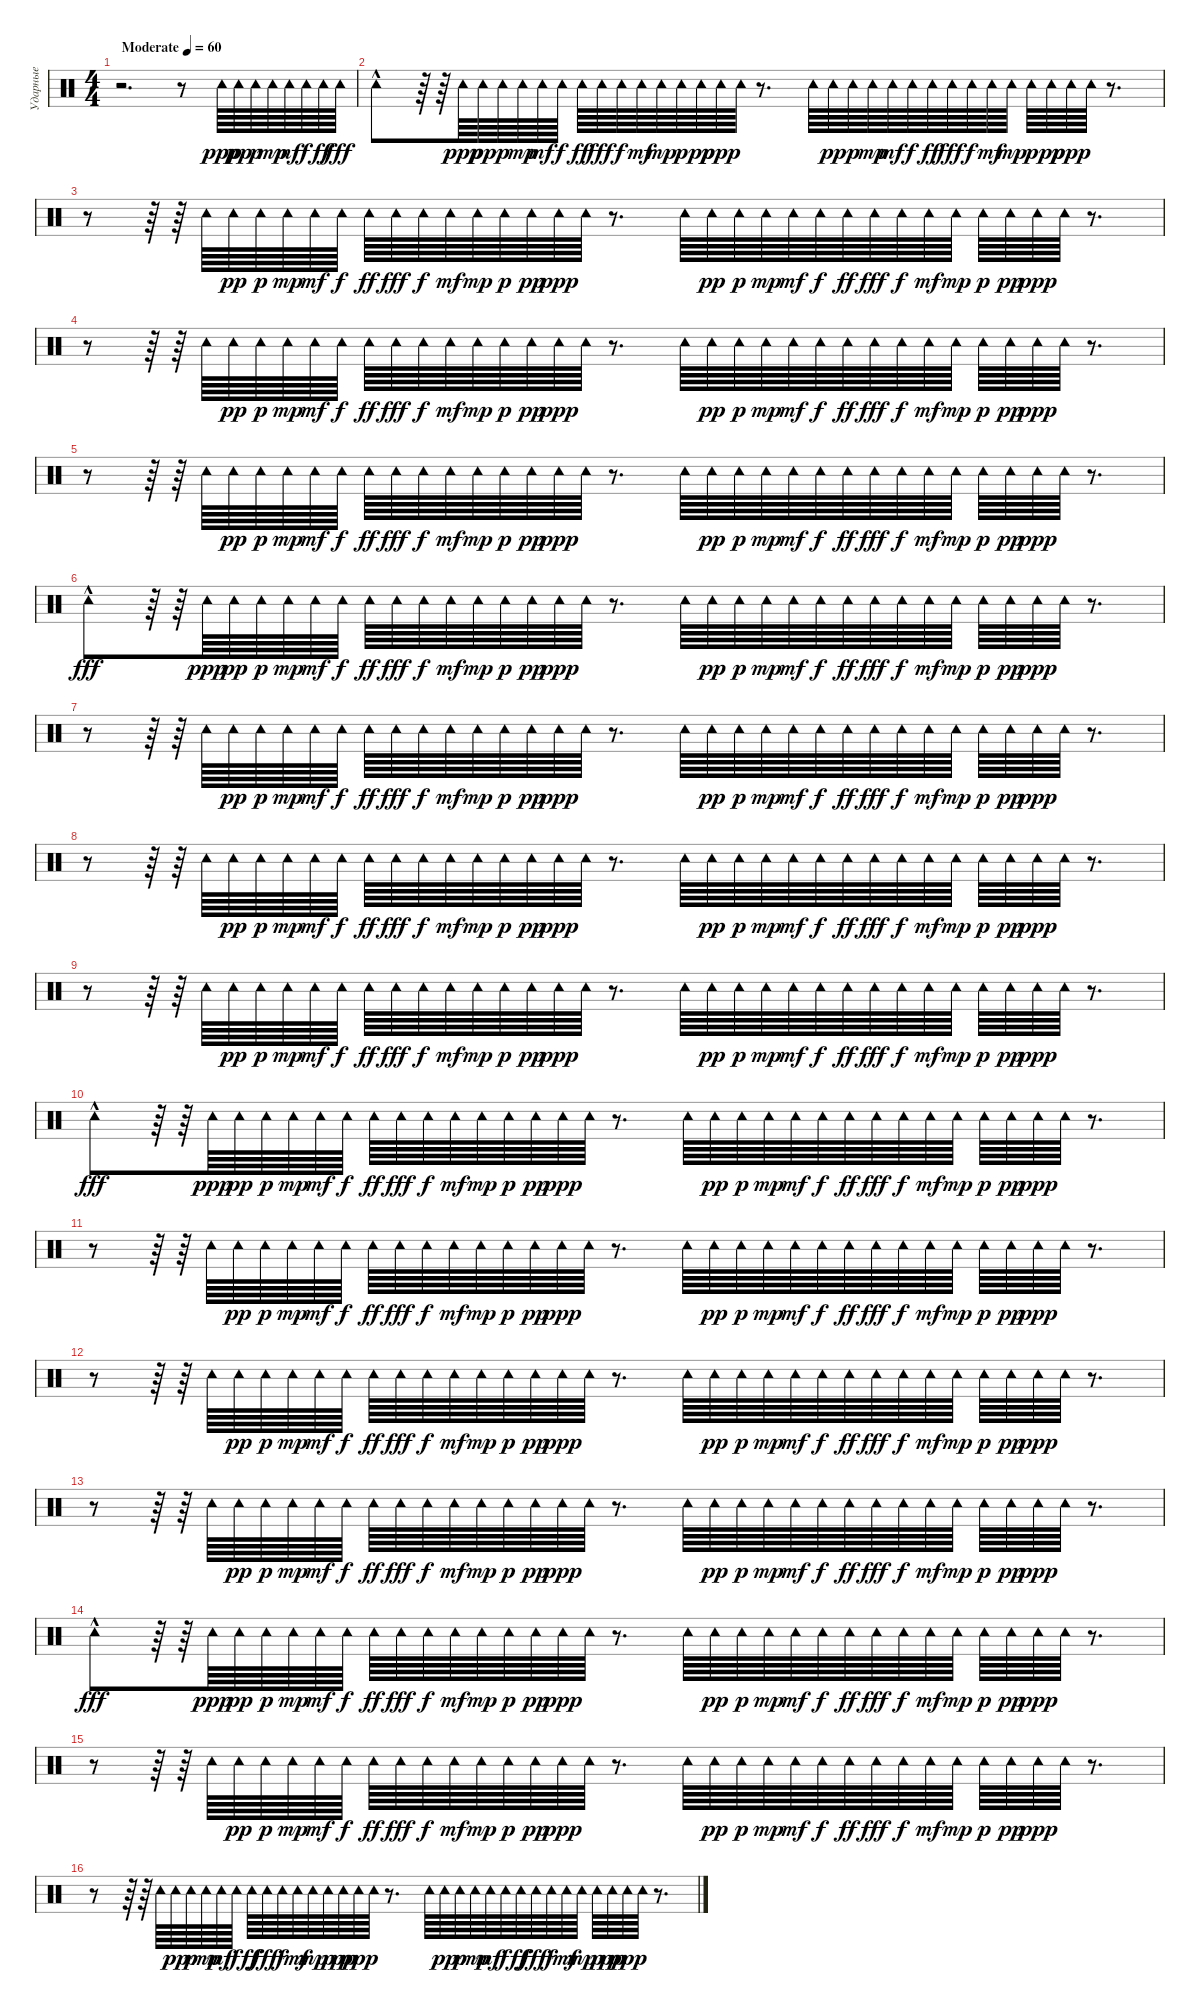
\track ("Ударные" "Ударные") {instrument percussion}
\staff {score}
\articulation defaults
\ts (4 4)
\tempo (60 "Moderate")
\clef neutral
\ks c
r.2{d dy ppp} r.8 "Tambourine (hit)".64 "Tambourine (hit)".64{dy pp} "Tambourine (hit)".64{dy p} "Tambourine (hit)".64{dy mp} "Tambourine (hit)".64{dy mf} "Tambourine (hit)".64{dy f} "Tambourine (hit)".64{dy ff} "Tambourine (hit)".64{dy fff} |
"Tambourine (hit)"{hac}.8 r.64 r.64 "Tambourine (hit)".64{dy ppp} "Tambourine (hit)".64{dy pp} "Tambourine (hit)".64{dy p} "Tambourine (hit)".64{dy mp} "Tambourine (hit)".64{dy mf} "Tambourine (hit)".64{dy f} "Tambourine (hit)".64{dy ff} "Tambourine (hit)".64{dy fff} "Tambourine (hit)".64{dy f} "Tambourine (hit)".64{dy mf} "Tambourine (hit)".64{dy mp} "Tambourine (hit)".64{dy p} "Tambourine (hit)".64{dy pp} "Tambourine (hit)".64{dy ppp} "Tambourine (hit)".64 r.8{d} "Tambourine (hit)".64 "Tambourine (hit)".64{dy pp} "Tambourine (hit)".64{dy p} "Tambourine (hit)".64{dy mp} "Tambourine (hit)".64{dy mf} "Tambourine (hit)".64{dy f} "Tambourine (hit)".64{dy ff} "Tambourine (hit)".64{dy fff} "Tambourine (hit)".64{dy f} "Tambourine (hit)".64{dy mf} "Tambourine (hit)".64{dy mp} "Tambourine (hit)".64{dy p} "Tambourine (hit)".64{dy pp} "Tambourine (hit)".64{dy ppp} "Tambourine (hit)".64 r.8{d} |
r.8 r.64 r.64 "Tambourine (hit)".64 "Tambourine (hit)".64{dy pp} "Tambourine (hit)".64{dy p} "Tambourine (hit)".64{dy mp} "Tambourine (hit)".64{dy mf} "Tambourine (hit)".64{dy f} "Tambourine (hit)".64{dy ff} "Tambourine (hit)".64{dy fff} "Tambourine (hit)".64{dy f} "Tambourine (hit)".64{dy mf} "Tambourine (hit)".64{dy mp} "Tambourine (hit)".64{dy p} "Tambourine (hit)".64{dy pp} "Tambourine (hit)".64{dy ppp} "Tambourine (hit)".64 r.8{d} "Tambourine (hit)".64 "Tambourine (hit)".64{dy pp} "Tambourine (hit)".64{dy p} "Tambourine (hit)".64{dy mp} "Tambourine (hit)".64{dy mf} "Tambourine (hit)".64{dy f} "Tambourine (hit)".64{dy ff} "Tambourine (hit)".64{dy fff} "Tambourine (hit)".64{dy f} "Tambourine (hit)".64{dy mf} "Tambourine (hit)".64{dy mp} "Tambourine (hit)".64{dy p} "Tambourine (hit)".64{dy pp} "Tambourine (hit)".64{dy ppp} "Tambourine (hit)".64 r.8{d} |
r.8 r.64 r.64 "Tambourine (hit)".64 "Tambourine (hit)".64{dy pp} "Tambourine (hit)".64{dy p} "Tambourine (hit)".64{dy mp} "Tambourine (hit)".64{dy mf} "Tambourine (hit)".64{dy f} "Tambourine (hit)".64{dy ff} "Tambourine (hit)".64{dy fff} "Tambourine (hit)".64{dy f} "Tambourine (hit)".64{dy mf} "Tambourine (hit)".64{dy mp} "Tambourine (hit)".64{dy p} "Tambourine (hit)".64{dy pp} "Tambourine (hit)".64{dy ppp} "Tambourine (hit)".64 r.8{d} "Tambourine (hit)".64 "Tambourine (hit)".64{dy pp} "Tambourine (hit)".64{dy p} "Tambourine (hit)".64{dy mp} "Tambourine (hit)".64{dy mf} "Tambourine (hit)".64{dy f} "Tambourine (hit)".64{dy ff} "Tambourine (hit)".64{dy fff} "Tambourine (hit)".64{dy f} "Tambourine (hit)".64{dy mf} "Tambourine (hit)".64{dy mp} "Tambourine (hit)".64{dy p} "Tambourine (hit)".64{dy pp} "Tambourine (hit)".64{dy ppp} "Tambourine (hit)".64 r.8{d} |
r.8 r.64 r.64 "Tambourine (hit)".64 "Tambourine (hit)".64{dy pp} "Tambourine (hit)".64{dy p} "Tambourine (hit)".64{dy mp} "Tambourine (hit)".64{dy mf} "Tambourine (hit)".64{dy f} "Tambourine (hit)".64{dy ff} "Tambourine (hit)".64{dy fff} "Tambourine (hit)".64{dy f} "Tambourine (hit)".64{dy mf} "Tambourine (hit)".64{dy mp} "Tambourine (hit)".64{dy p} "Tambourine (hit)".64{dy pp} "Tambourine (hit)".64{dy ppp} "Tambourine (hit)".64 r.8{d} "Tambourine (hit)".64 "Tambourine (hit)".64{dy pp} "Tambourine (hit)".64{dy p} "Tambourine (hit)".64{dy mp} "Tambourine (hit)".64{dy mf} "Tambourine (hit)".64{dy f} "Tambourine (hit)".64{dy ff} "Tambourine (hit)".64{dy fff} "Tambourine (hit)".64{dy f} "Tambourine (hit)".64{dy mf} "Tambourine (hit)".64{dy mp} "Tambourine (hit)".64{dy p} "Tambourine (hit)".64{dy pp} "Tambourine (hit)".64{dy ppp} "Tambourine (hit)".64 r.8{d} |
"Tambourine (hit)"{hac}.8{dy fff} r.64 r.64 "Tambourine (hit)".64{dy ppp} "Tambourine (hit)".64{dy pp} "Tambourine (hit)".64{dy p} "Tambourine (hit)".64{dy mp} "Tambourine (hit)".64{dy mf} "Tambourine (hit)".64{dy f} "Tambourine (hit)".64{dy ff} "Tambourine (hit)".64{dy fff} "Tambourine (hit)".64{dy f} "Tambourine (hit)".64{dy mf} "Tambourine (hit)".64{dy mp} "Tambourine (hit)".64{dy p} "Tambourine (hit)".64{dy pp} "Tambourine (hit)".64{dy ppp} "Tambourine (hit)".64 r.8{d} "Tambourine (hit)".64 "Tambourine (hit)".64{dy pp} "Tambourine (hit)".64{dy p} "Tambourine (hit)".64{dy mp} "Tambourine (hit)".64{dy mf} "Tambourine (hit)".64{dy f} "Tambourine (hit)".64{dy ff} "Tambourine (hit)".64{dy fff} "Tambourine (hit)".64{dy f} "Tambourine (hit)".64{dy mf} "Tambourine (hit)".64{dy mp} "Tambourine (hit)".64{dy p} "Tambourine (hit)".64{dy pp} "Tambourine (hit)".64{dy ppp} "Tambourine (hit)".64 r.8{d} |
r.8 r.64 r.64 "Tambourine (hit)".64 "Tambourine (hit)".64{dy pp} "Tambourine (hit)".64{dy p} "Tambourine (hit)".64{dy mp} "Tambourine (hit)".64{dy mf} "Tambourine (hit)".64{dy f} "Tambourine (hit)".64{dy ff} "Tambourine (hit)".64{dy fff} "Tambourine (hit)".64{dy f} "Tambourine (hit)".64{dy mf} "Tambourine (hit)".64{dy mp} "Tambourine (hit)".64{dy p} "Tambourine (hit)".64{dy pp} "Tambourine (hit)".64{dy ppp} "Tambourine (hit)".64 r.8{d} "Tambourine (hit)".64 "Tambourine (hit)".64{dy pp} "Tambourine (hit)".64{dy p} "Tambourine (hit)".64{dy mp} "Tambourine (hit)".64{dy mf} "Tambourine (hit)".64{dy f} "Tambourine (hit)".64{dy ff} "Tambourine (hit)".64{dy fff} "Tambourine (hit)".64{dy f} "Tambourine (hit)".64{dy mf} "Tambourine (hit)".64{dy mp} "Tambourine (hit)".64{dy p} "Tambourine (hit)".64{dy pp} "Tambourine (hit)".64{dy ppp} "Tambourine (hit)".64 r.8{d} |
r.8 r.64 r.64 "Tambourine (hit)".64 "Tambourine (hit)".64{dy pp} "Tambourine (hit)".64{dy p} "Tambourine (hit)".64{dy mp} "Tambourine (hit)".64{dy mf} "Tambourine (hit)".64{dy f} "Tambourine (hit)".64{dy ff} "Tambourine (hit)".64{dy fff} "Tambourine (hit)".64{dy f} "Tambourine (hit)".64{dy mf} "Tambourine (hit)".64{dy mp} "Tambourine (hit)".64{dy p} "Tambourine (hit)".64{dy pp} "Tambourine (hit)".64{dy ppp} "Tambourine (hit)".64 r.8{d} "Tambourine (hit)".64 "Tambourine (hit)".64{dy pp} "Tambourine (hit)".64{dy p} "Tambourine (hit)".64{dy mp} "Tambourine (hit)".64{dy mf} "Tambourine (hit)".64{dy f} "Tambourine (hit)".64{dy ff} "Tambourine (hit)".64{dy fff} "Tambourine (hit)".64{dy f} "Tambourine (hit)".64{dy mf} "Tambourine (hit)".64{dy mp} "Tambourine (hit)".64{dy p} "Tambourine (hit)".64{dy pp} "Tambourine (hit)".64{dy ppp} "Tambourine (hit)".64 r.8{d} |
r.8 r.64 r.64 "Tambourine (hit)".64 "Tambourine (hit)".64{dy pp} "Tambourine (hit)".64{dy p} "Tambourine (hit)".64{dy mp} "Tambourine (hit)".64{dy mf} "Tambourine (hit)".64{dy f} "Tambourine (hit)".64{dy ff} "Tambourine (hit)".64{dy fff} "Tambourine (hit)".64{dy f} "Tambourine (hit)".64{dy mf} "Tambourine (hit)".64{dy mp} "Tambourine (hit)".64{dy p} "Tambourine (hit)".64{dy pp} "Tambourine (hit)".64{dy ppp} "Tambourine (hit)".64 r.8{d} "Tambourine (hit)".64 "Tambourine (hit)".64{dy pp} "Tambourine (hit)".64{dy p} "Tambourine (hit)".64{dy mp} "Tambourine (hit)".64{dy mf} "Tambourine (hit)".64{dy f} "Tambourine (hit)".64{dy ff} "Tambourine (hit)".64{dy fff} "Tambourine (hit)".64{dy f} "Tambourine (hit)".64{dy mf} "Tambourine (hit)".64{dy mp} "Tambourine (hit)".64{dy p} "Tambourine (hit)".64{dy pp} "Tambourine (hit)".64{dy ppp} "Tambourine (hit)".64 r.8{d} |
"Tambourine (hit)"{hac}.8{dy fff} r.64 r.64 "Tambourine (hit)".64{dy ppp} "Tambourine (hit)".64{dy pp} "Tambourine (hit)".64{dy p} "Tambourine (hit)".64{dy mp} "Tambourine (hit)".64{dy mf} "Tambourine (hit)".64{dy f} "Tambourine (hit)".64{dy ff} "Tambourine (hit)".64{dy fff} "Tambourine (hit)".64{dy f} "Tambourine (hit)".64{dy mf} "Tambourine (hit)".64{dy mp} "Tambourine (hit)".64{dy p} "Tambourine (hit)".64{dy pp} "Tambourine (hit)".64{dy ppp} "Tambourine (hit)".64 r.8{d} "Tambourine (hit)".64 "Tambourine (hit)".64{dy pp} "Tambourine (hit)".64{dy p} "Tambourine (hit)".64{dy mp} "Tambourine (hit)".64{dy mf} "Tambourine (hit)".64{dy f} "Tambourine (hit)".64{dy ff} "Tambourine (hit)".64{dy fff} "Tambourine (hit)".64{dy f} "Tambourine (hit)".64{dy mf} "Tambourine (hit)".64{dy mp} "Tambourine (hit)".64{dy p} "Tambourine (hit)".64{dy pp} "Tambourine (hit)".64{dy ppp} "Tambourine (hit)".64 r.8{d} |
r.8 r.64 r.64 "Tambourine (hit)".64 "Tambourine (hit)".64{dy pp} "Tambourine (hit)".64{dy p} "Tambourine (hit)".64{dy mp} "Tambourine (hit)".64{dy mf} "Tambourine (hit)".64{dy f} "Tambourine (hit)".64{dy ff} "Tambourine (hit)".64{dy fff} "Tambourine (hit)".64{dy f} "Tambourine (hit)".64{dy mf} "Tambourine (hit)".64{dy mp} "Tambourine (hit)".64{dy p} "Tambourine (hit)".64{dy pp} "Tambourine (hit)".64{dy ppp} "Tambourine (hit)".64 r.8{d} "Tambourine (hit)".64 "Tambourine (hit)".64{dy pp} "Tambourine (hit)".64{dy p} "Tambourine (hit)".64{dy mp} "Tambourine (hit)".64{dy mf} "Tambourine (hit)".64{dy f} "Tambourine (hit)".64{dy ff} "Tambourine (hit)".64{dy fff} "Tambourine (hit)".64{dy f} "Tambourine (hit)".64{dy mf} "Tambourine (hit)".64{dy mp} "Tambourine (hit)".64{dy p} "Tambourine (hit)".64{dy pp} "Tambourine (hit)".64{dy ppp} "Tambourine (hit)".64 r.8{d} |
r.8 r.64 r.64 "Tambourine (hit)".64 "Tambourine (hit)".64{dy pp} "Tambourine (hit)".64{dy p} "Tambourine (hit)".64{dy mp} "Tambourine (hit)".64{dy mf} "Tambourine (hit)".64{dy f} "Tambourine (hit)".64{dy ff} "Tambourine (hit)".64{dy fff} "Tambourine (hit)".64{dy f} "Tambourine (hit)".64{dy mf} "Tambourine (hit)".64{dy mp} "Tambourine (hit)".64{dy p} "Tambourine (hit)".64{dy pp} "Tambourine (hit)".64{dy ppp} "Tambourine (hit)".64 r.8{d} "Tambourine (hit)".64 "Tambourine (hit)".64{dy pp} "Tambourine (hit)".64{dy p} "Tambourine (hit)".64{dy mp} "Tambourine (hit)".64{dy mf} "Tambourine (hit)".64{dy f} "Tambourine (hit)".64{dy ff} "Tambourine (hit)".64{dy fff} "Tambourine (hit)".64{dy f} "Tambourine (hit)".64{dy mf} "Tambourine (hit)".64{dy mp} "Tambourine (hit)".64{dy p} "Tambourine (hit)".64{dy pp} "Tambourine (hit)".64{dy ppp} "Tambourine (hit)".64 r.8{d} |
r.8 r.64 r.64 "Tambourine (hit)".64 "Tambourine (hit)".64{dy pp} "Tambourine (hit)".64{dy p} "Tambourine (hit)".64{dy mp} "Tambourine (hit)".64{dy mf} "Tambourine (hit)".64{dy f} "Tambourine (hit)".64{dy ff} "Tambourine (hit)".64{dy fff} "Tambourine (hit)".64{dy f} "Tambourine (hit)".64{dy mf} "Tambourine (hit)".64{dy mp} "Tambourine (hit)".64{dy p} "Tambourine (hit)".64{dy pp} "Tambourine (hit)".64{dy ppp} "Tambourine (hit)".64 r.8{d} "Tambourine (hit)".64 "Tambourine (hit)".64{dy pp} "Tambourine (hit)".64{dy p} "Tambourine (hit)".64{dy mp} "Tambourine (hit)".64{dy mf} "Tambourine (hit)".64{dy f} "Tambourine (hit)".64{dy ff} "Tambourine (hit)".64{dy fff} "Tambourine (hit)".64{dy f} "Tambourine (hit)".64{dy mf} "Tambourine (hit)".64{dy mp} "Tambourine (hit)".64{dy p} "Tambourine (hit)".64{dy pp} "Tambourine (hit)".64{dy ppp} "Tambourine (hit)".64 r.8{d} |
"Tambourine (hit)"{hac}.8{dy fff} r.64 r.64 "Tambourine (hit)".64{dy ppp} "Tambourine (hit)".64{dy pp} "Tambourine (hit)".64{dy p} "Tambourine (hit)".64{dy mp} "Tambourine (hit)".64{dy mf} "Tambourine (hit)".64{dy f} "Tambourine (hit)".64{dy ff} "Tambourine (hit)".64{dy fff} "Tambourine (hit)".64{dy f} "Tambourine (hit)".64{dy mf} "Tambourine (hit)".64{dy mp} "Tambourine (hit)".64{dy p} "Tambourine (hit)".64{dy pp} "Tambourine (hit)".64{dy ppp} "Tambourine (hit)".64 r.8{d} "Tambourine (hit)".64 "Tambourine (hit)".64{dy pp} "Tambourine (hit)".64{dy p} "Tambourine (hit)".64{dy mp} "Tambourine (hit)".64{dy mf} "Tambourine (hit)".64{dy f} "Tambourine (hit)".64{dy ff} "Tambourine (hit)".64{dy fff} "Tambourine (hit)".64{dy f} "Tambourine (hit)".64{dy mf} "Tambourine (hit)".64{dy mp} "Tambourine (hit)".64{dy p} "Tambourine (hit)".64{dy pp} "Tambourine (hit)".64{dy ppp} "Tambourine (hit)".64 r.8{d} |
r.8 r.64 r.64 "Tambourine (hit)".64 "Tambourine (hit)".64{dy pp} "Tambourine (hit)".64{dy p} "Tambourine (hit)".64{dy mp} "Tambourine (hit)".64{dy mf} "Tambourine (hit)".64{dy f} "Tambourine (hit)".64{dy ff} "Tambourine (hit)".64{dy fff} "Tambourine (hit)".64{dy f} "Tambourine (hit)".64{dy mf} "Tambourine (hit)".64{dy mp} "Tambourine (hit)".64{dy p} "Tambourine (hit)".64{dy pp} "Tambourine (hit)".64{dy ppp} "Tambourine (hit)".64 r.8{d} "Tambourine (hit)".64 "Tambourine (hit)".64{dy pp} "Tambourine (hit)".64{dy p} "Tambourine (hit)".64{dy mp} "Tambourine (hit)".64{dy mf} "Tambourine (hit)".64{dy f} "Tambourine (hit)".64{dy ff} "Tambourine (hit)".64{dy fff} "Tambourine (hit)".64{dy f} "Tambourine (hit)".64{dy mf} "Tambourine (hit)".64{dy mp} "Tambourine (hit)".64{dy p} "Tambourine (hit)".64{dy pp} "Tambourine (hit)".64{dy ppp} "Tambourine (hit)".64 r.8{d} |
r.8 r.64 r.64 "Tambourine (hit)".64 "Tambourine (hit)".64{dy pp} "Tambourine (hit)".64{dy p} "Tambourine (hit)".64{dy mp} "Tambourine (hit)".64{dy mf} "Tambourine (hit)".64{dy f} "Tambourine (hit)".64{dy ff} "Tambourine (hit)".64{dy fff} "Tambourine (hit)".64{dy f} "Tambourine (hit)".64{dy mf} "Tambourine (hit)".64{dy mp} "Tambourine (hit)".64{dy p} "Tambourine (hit)".64{dy pp} "Tambourine (hit)".64{dy ppp} "Tambourine (hit)".64 r.8{d} "Tambourine (hit)".64 "Tambourine (hit)".64{dy pp} "Tambourine (hit)".64{dy p} "Tambourine (hit)".64{dy mp} "Tambourine (hit)".64{dy mf} "Tambourine (hit)".64{dy f} "Tambourine (hit)".64{dy ff} "Tambourine (hit)".64{dy fff} "Tambourine (hit)".64{dy f} "Tambourine (hit)".64{dy mf} "Tambourine (hit)".64{dy mp} "Tambourine (hit)".64{dy p} "Tambourine (hit)".64{dy pp} "Tambourine (hit)".64{dy ppp} "Tambourine (hit)".64 r.8{d}
